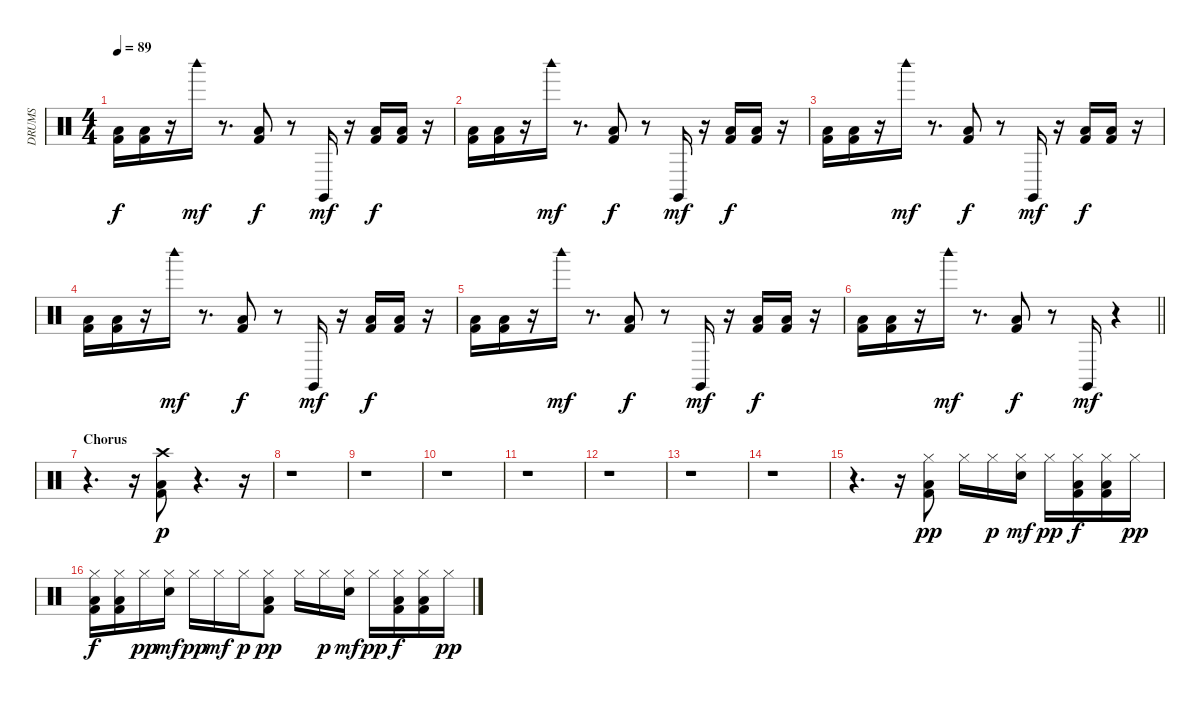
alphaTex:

\track ("DRUMS" "DRUMS") {instrument percussion}
\staff {score}
\articulation defaults
\ts (4 4)
\tempo 89
\clef neutral
\ks c
("Kick (hit) 2" "Low Floor Tom (hit)").16{dy f} ("Kick (hit) 2" "Low Floor Tom (hit)").16 r.16 "Woodblock high (hit)".16{dy mf} r.8{d} ("Kick (hit) 2" "Low Floor Tom (hit)").8{dy f} r.8 "Claves (hit)".16{dy mf} r.16 ("Kick (hit) 2" "Low Floor Tom (hit)").16{dy f} ("Kick (hit) 2" "Low Floor Tom (hit)").16 r.16 |
("Kick (hit) 2" "Low Floor Tom (hit)").16 ("Kick (hit) 2" "Low Floor Tom (hit)").16 r.16 "Woodblock high (hit)".16{dy mf} r.8{d} ("Kick (hit) 2" "Low Floor Tom (hit)").8{dy f} r.8 "Claves (hit)".16{dy mf} r.16 ("Kick (hit) 2" "Low Floor Tom (hit)").16{dy f} ("Kick (hit) 2" "Low Floor Tom (hit)").16 r.16 |
("Kick (hit) 2" "Low Floor Tom (hit)").16 ("Kick (hit) 2" "Low Floor Tom (hit)").16 r.16 "Woodblock high (hit)".16{dy mf} r.8{d} ("Kick (hit) 2" "Low Floor Tom (hit)").8{dy f} r.8 "Claves (hit)".16{dy mf} r.16 ("Kick (hit) 2" "Low Floor Tom (hit)").16{dy f} ("Kick (hit) 2" "Low Floor Tom (hit)").16 r.16 |
("Kick (hit) 2" "Low Floor Tom (hit)").16 ("Kick (hit) 2" "Low Floor Tom (hit)").16 r.16 "Woodblock high (hit)".16{dy mf} r.8{d} ("Kick (hit) 2" "Low Floor Tom (hit)").8{dy f} r.8 "Claves (hit)".16{dy mf} r.16 ("Kick (hit) 2" "Low Floor Tom (hit)").16{dy f} ("Kick (hit) 2" "Low Floor Tom (hit)").16 r.16 |
("Kick (hit) 2" "Low Floor Tom (hit)").16 ("Kick (hit) 2" "Low Floor Tom (hit)").16 r.16 "Woodblock high (hit)".16{dy mf} r.8{d} ("Kick (hit) 2" "Low Floor Tom (hit)").8{dy f} r.8 "Claves (hit)".16{dy mf} r.16 ("Kick (hit) 2" "Low Floor Tom (hit)").16{dy f} ("Kick (hit) 2" "Low Floor Tom (hit)").16 r.16 |
\barLineRight lightlight
("Kick (hit) 2" "Low Floor Tom (hit)").16 ("Kick (hit) 2" "Low Floor Tom (hit)").16 r.16 "Woodblock high (hit)".16{dy mf} r.8{d} ("Kick (hit) 2" "Low Floor Tom (hit)").8{dy f} r.8 "Claves (hit)".16{dy mf} r.4 |
\section ("" "Chorus")
r.4{d} r.16 ("Crash high (hit)" "Kick (hit) 2" "Low Floor Tom (hit)").8{dy p} r.4{d} r.16 |
r.1 |
r.1 |
r.1 |
r.1 |
r.1 |
r.1 |
r.1 |
r.4{d} r.16 ("Hi-Hat (closed)" "Kick (hit) 2" "Low Floor Tom (hit)").8{dy pp} "Hi-Hat (closed)".16 "Hi-Hat (closed)".16{dy p} ("Hand Clap (hit)" "Hi-Hat (closed)").16{dy mf} "Hi-Hat (closed)".16{dy pp} ("Kick (hit) 2" "Low Floor Tom (hit)" "Hi-Hat (closed)").16{dy f} ("Kick (hit) 2" "Low Floor Tom (hit)" "Hi-Hat (closed)").16 "Hi-Hat (closed)".16{dy pp} |
("Kick (hit) 2" "Low Floor Tom (hit)" "Hi-Hat (closed)").16{dy f} ("Kick (hit) 2" "Low Floor Tom (hit)" "Hi-Hat (closed)").16 "Hi-Hat (closed)".16{dy pp} ("Hand Clap (hit)" "Hi-Hat (closed)").16{dy mf} "Hi-Hat (closed)".16{dy pp} "Hi-Hat (closed)".16{dy mf} "Hi-Hat (closed)".16{dy p} ("Hi-Hat (closed)" "Kick (hit) 2" "Low Floor Tom (hit)").8{dy pp} "Hi-Hat (closed)".16 "Hi-Hat (closed)".16{dy p} ("Hand Clap (hit)" "Hi-Hat (closed)").16{dy mf} "Hi-Hat (closed)".16{dy pp} ("Kick (hit) 2" "Low Floor Tom (hit)" "Hi-Hat (closed)").16{dy f} ("Kick (hit) 2" "Low Floor Tom (hit)" "Hi-Hat (closed)").16 "Hi-Hat (closed)".16{dy pp}
